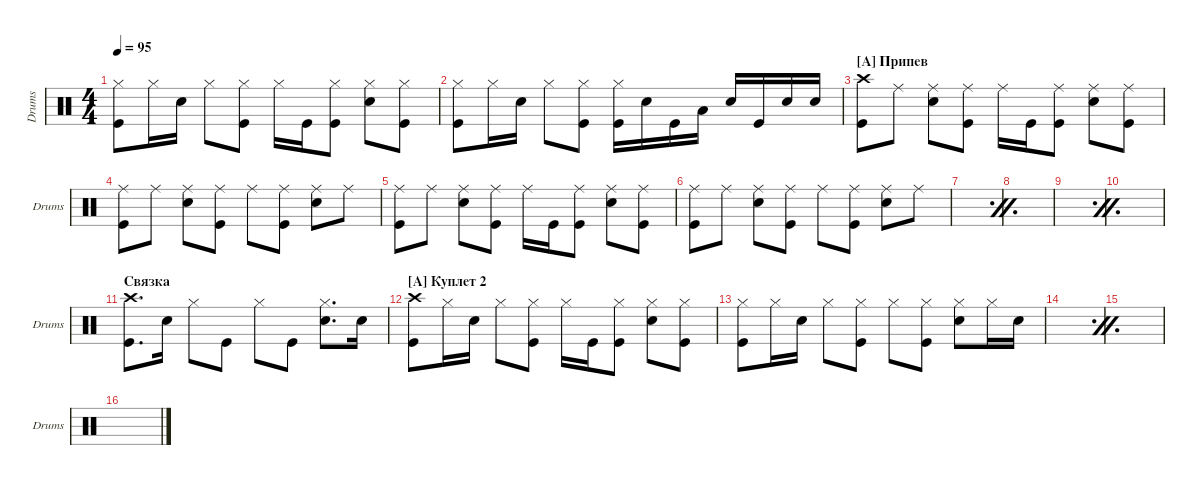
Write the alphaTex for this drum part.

\defaultSystemsLayout 4
\hideDynamics
\bracketExtendMode groupsimilarinstruments
\singleTrackTrackNamePolicy allsystems
\multiTrackTrackNamePolicy allsystems
\otherSystemsTrackNameOrientation horizontal
\track ("Drumkit" "Drums") {instrument percussion}
\staff {score}
\articulation defaults
\ts (4 4)
\tempo 95
\clef neutral
\ks c
("Hi-Hat (closed)" "Kick (hit)").8{dy ff} "Hi-Hat (closed)".16 "Snare (hit) 2".16 "Hi-Hat (closed)".8 ("Hi-Hat (closed)" "Kick (hit)").8 "Hi-Hat (closed)".16 "Kick (hit)".16 ("Hi-Hat (closed)" "Kick (hit)").8 ("Hi-Hat (closed)" "Snare (hit) 2").8 ("Hi-Hat (closed)" "Kick (hit)").8 |
("Hi-Hat (closed)" "Kick (hit)").8 "Hi-Hat (closed)".16 "Snare (hit) 2".16 "Hi-Hat (closed)".8 ("Hi-Hat (closed)" "Kick (hit)").8 ("Hi-Hat (closed)" "Kick (hit)").16 "Snare (hit) 2".16 "Kick (hit)".16 "Low Tom (hit)".16 "Snare (hit) 2".16 "Kick (hit)".16 "Snare (hit) 2".16 "Snare (hit) 2".16 |
\section ("A" "Припев")
("Kick (hit)" "Crash high (hit)").8 "Ride (middle)".8 ("Snare (hit) 2" "Ride (middle)").8 ("Kick (hit)" "Ride (middle)").8 "Ride (middle)".16 "Kick (hit)".16 ("Kick (hit)" "Ride (middle)").8 ("Snare (hit) 2" "Ride (middle)").8 ("Kick (hit)" "Ride (middle)").8 |
("Kick (hit)" "Ride (middle)").8 "Ride (middle)".8 ("Snare (hit) 2" "Ride (middle)").8 ("Kick (hit)" "Ride (middle)").8 "Ride (middle)".8 ("Kick (hit)" "Ride (middle)").8 ("Snare (hit) 2" "Ride (middle)").8 "Ride (middle)".8 |
("Kick (hit)" "Ride (middle)").8 "Ride (middle)".8 ("Snare (hit) 2" "Ride (middle)").8 ("Kick (hit)" "Ride (middle)").8 "Ride (middle)".16 "Kick (hit)".16 ("Kick (hit)" "Ride (middle)").8 ("Snare (hit) 2" "Ride (middle)").8 ("Kick (hit)" "Ride (middle)").8 |
("Kick (hit)" "Ride (middle)").8 "Ride (middle)".8 ("Snare (hit) 2" "Ride (middle)").8 ("Kick (hit)" "Ride (middle)").8 "Ride (middle)".8 ("Kick (hit)" "Ride (middle)").8 ("Snare (hit) 2" "Ride (middle)").8 "Ride (middle)".8 |
\simile firstofdouble
|
\simile secondofdouble
|
\simile firstofdouble
|
\simile secondofdouble
|
\section ("" "Связка")
\simile none
("Kick (hit)" "Crash high (hit)").8{d} "Snare (hit) 2".16 "Hi-Hat (closed)".8 "Kick (hit)".8 "Hi-Hat (closed)".8 "Kick (hit)".8 ("Hi-Hat (closed)" "Snare (hit) 2").8{d} "Snare (hit) 2".16 |
\section ("A" "Куплет 2")
("Kick (hit)" "Crash high (hit)").8 "Hi-Hat (closed)".16 "Snare (hit) 2".16 "Hi-Hat (closed)".8 ("Hi-Hat (closed)" "Kick (hit)").8 "Hi-Hat (closed)".16 "Kick (hit)".16 ("Hi-Hat (closed)" "Kick (hit)").8 ("Hi-Hat (closed)" "Snare (hit) 2").8 ("Hi-Hat (closed)" "Kick (hit)").8 |
("Hi-Hat (closed)" "Kick (hit)").8 "Hi-Hat (closed)".16 "Snare (hit) 2".16 "Hi-Hat (closed)".8 ("Hi-Hat (closed)" "Kick (hit)").8 "Hi-Hat (closed)".8 ("Hi-Hat (closed)" "Kick (hit)").8 ("Hi-Hat (closed)" "Snare (hit) 2").8 "Hi-Hat (closed)".16 "Snare (hit) 2".16 |
\simile firstofdouble
|
\simile secondofdouble
|
\simile firstofdouble
